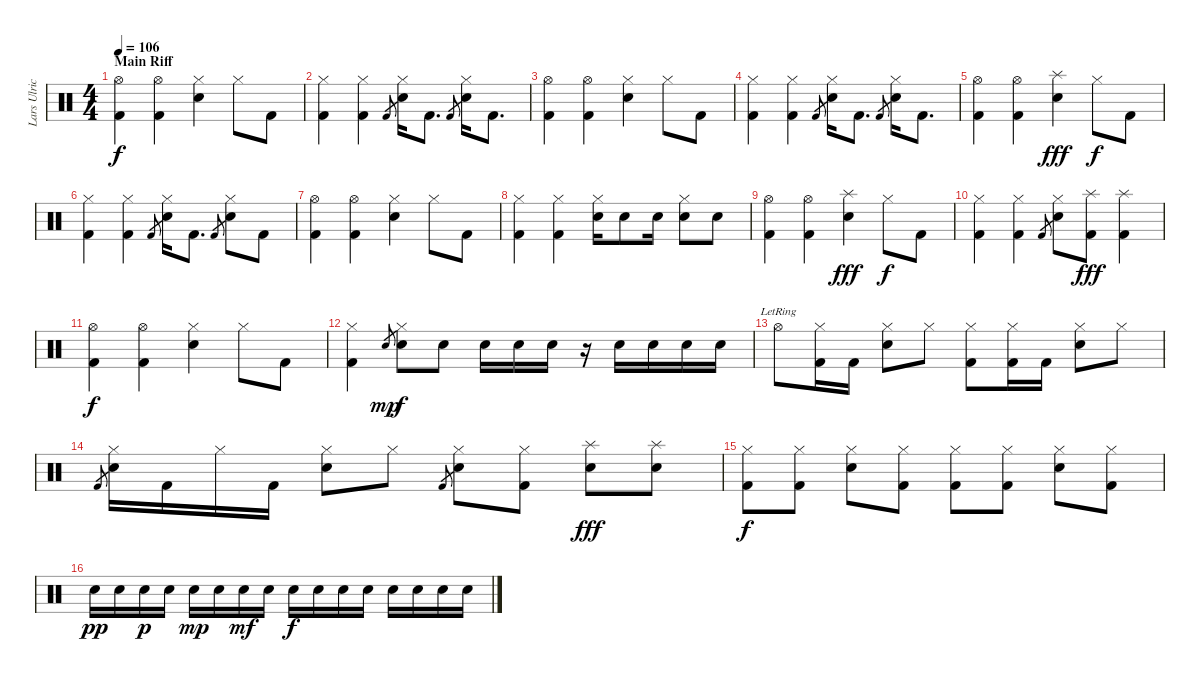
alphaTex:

\track ("Lars Ulrich [Drums]" "Lars Ulric") {instrument percussion}
\staff {score}
\articulation defaults
\ts (4 4)
\section ("" "Main Riff")
\tempo 106
\clef neutral
\ks c
("Hi-Hat (open)" "Kick (hit) 2").4{dy f} ("Hi-Hat (open)" "Kick (hit) 2").4 ("Hi-Hat (closed)" "Electric Snare (hit)").4 "Hi-Hat (closed)".8 "Kick (hit) 2".8 |
("Hi-Hat (closed)" "Kick (hit) 2").4 ("Hi-Hat (closed)" "Kick (hit) 2").4 "Kick (hit) 2".8{gr} ("Hi-Hat (closed)" "Electric Snare (hit)").16 "Kick (hit) 2".8{d} "Kick (hit) 2".8{gr} ("Hi-Hat (closed)" "Electric Snare (hit)").16 "Kick (hit) 2".8{d} |
("Hi-Hat (open)" "Kick (hit) 2").4 ("Hi-Hat (open)" "Kick (hit) 2").4 ("Hi-Hat (closed)" "Electric Snare (hit)").4 "Hi-Hat (closed)".8 "Kick (hit) 2".8 |
("Hi-Hat (closed)" "Kick (hit) 2").4 ("Hi-Hat (closed)" "Kick (hit) 2").4 "Kick (hit) 2".8{gr} ("Hi-Hat (closed)" "Electric Snare (hit)").16 "Kick (hit) 2".8{d} "Kick (hit) 2".8{gr} ("Hi-Hat (closed)" "Electric Snare (hit)").16 "Kick (hit) 2".8{d} |
("Hi-Hat (open)" "Kick (hit) 2").4 ("Hi-Hat (open)" "Kick (hit) 2").4 ("Splash (hit)" "Electric Snare (hit)").4{dy fff} "Hi-Hat (closed)".8{dy f} "Kick (hit) 2".8 |
("Hi-Hat (closed)" "Kick (hit) 2").4 ("Hi-Hat (closed)" "Kick (hit) 2").4 "Kick (hit) 2".8{gr} ("Hi-Hat (closed)" "Electric Snare (hit)").16 "Kick (hit) 2".8{d} "Kick (hit) 2".8{gr} ("Hi-Hat (closed)" "Electric Snare (hit)").8 "Kick (hit) 2".8 |
("Hi-Hat (open)" "Kick (hit) 2").4 ("Hi-Hat (open)" "Kick (hit) 2").4 ("Hi-Hat (closed)" "Electric Snare (hit)").4 "Hi-Hat (closed)".8 "Kick (hit) 2".8 |
("Hi-Hat (closed)" "Kick (hit) 2").4 ("Hi-Hat (closed)" "Kick (hit) 2").4 ("Hi-Hat (closed)" "Electric Snare (hit)").16 "Electric Snare (hit)".8 "Electric Snare (hit)".16 ("Hi-Hat (closed)" "Electric Snare (hit)").8 "Electric Snare (hit)".8 |
("Hi-Hat (open)" "Kick (hit) 2").4 ("Hi-Hat (open)" "Kick (hit) 2").4 ("Splash (hit)" "Electric Snare (hit)").4{dy fff} "Hi-Hat (closed)".8{dy f} "Kick (hit) 2".8 |
("Hi-Hat (closed)" "Kick (hit) 2").4 ("Hi-Hat (closed)" "Kick (hit) 2").4 "Kick (hit) 2".8{gr} ("Hi-Hat (closed)" "Electric Snare (hit)").8 ("Splash (hit)" "Kick (hit) 2").8{dy fff} ("Splash (hit)" "Kick (hit) 2").4 |
("Hi-Hat (open)" "Kick (hit) 2").4{dy f} ("Hi-Hat (open)" "Kick (hit) 2").4 ("Hi-Hat (closed)" "Electric Snare (hit)").4 "Hi-Hat (closed)".8 "Kick (hit) 2".8 |
("Hi-Hat (closed)" "Kick (hit) 2").4 "Electric Snare (hit)".8{gr dy mp} ("Hi-Hat (closed)" "Electric Snare (hit)").8{dy f} "Electric Snare (hit)".8 "Electric Snare (hit)".16 "Electric Snare (hit)".16 "Electric Snare (hit)".16 r.16 "Electric Snare (hit)".16 "Electric Snare (hit)".16 "Electric Snare (hit)".16 "Electric Snare (hit)".16 |
"Hi-Hat (open)"{lr}.8 ("Hi-Hat (closed)" "Kick (hit) 2").16 "Kick (hit) 2".16 ("Hi-Hat (closed)" "Electric Snare (hit)").8 "Hi-Hat (closed)".8 ("Hi-Hat (closed)" "Kick (hit) 2").8 ("Hi-Hat (closed)" "Kick (hit) 2").16 "Kick (hit) 2".16 ("Hi-Hat (closed)" "Electric Snare (hit)").8 "Hi-Hat (closed)".8 |
"Kick (hit) 2".8{gr} ("Hi-Hat (closed)" "Electric Snare (hit)").16 "Kick (hit) 2".16 "Hi-Hat (closed)".16 "Kick (hit) 2".16 ("Hi-Hat (closed)" "Electric Snare (hit)").8 "Hi-Hat (closed)".8 "Kick (hit) 2".8{gr} ("Hi-Hat (closed)" "Electric Snare (hit)").8 ("Hi-Hat (closed)" "Kick (hit) 2").8 ("Splash (hit)" "Electric Snare (hit)").8{dy fff} ("Splash (hit)" "Electric Snare (hit)").8 |
("Hi-Hat (closed)" "Kick (hit) 2").8{dy f} ("Hi-Hat (closed)" "Kick (hit) 2").8 ("Hi-Hat (closed)" "Electric Snare (hit)").8 ("Hi-Hat (closed)" "Kick (hit) 2").8 ("Hi-Hat (closed)" "Kick (hit) 2").8 ("Hi-Hat (closed)" "Kick (hit) 2").8 ("Hi-Hat (closed)" "Electric Snare (hit)").8 ("Hi-Hat (closed)" "Kick (hit) 2").8 |
"Electric Snare (hit)".16{dy pp} "Electric Snare (hit)".16 "Electric Snare (hit)".16{dy p} "Electric Snare (hit)".16 "Electric Snare (hit)".16{dy mp} "Electric Snare (hit)".16 "Electric Snare (hit)".16{dy mf} "Electric Snare (hit)".16 "Electric Snare (hit)".16{dy f} "Electric Snare (hit)".16 "Electric Snare (hit)".16 "Electric Snare (hit)".16 "Electric Snare (hit)".16 "Electric Snare (hit)".16 "Electric Snare (hit)".16 "Electric Snare (hit)".16
